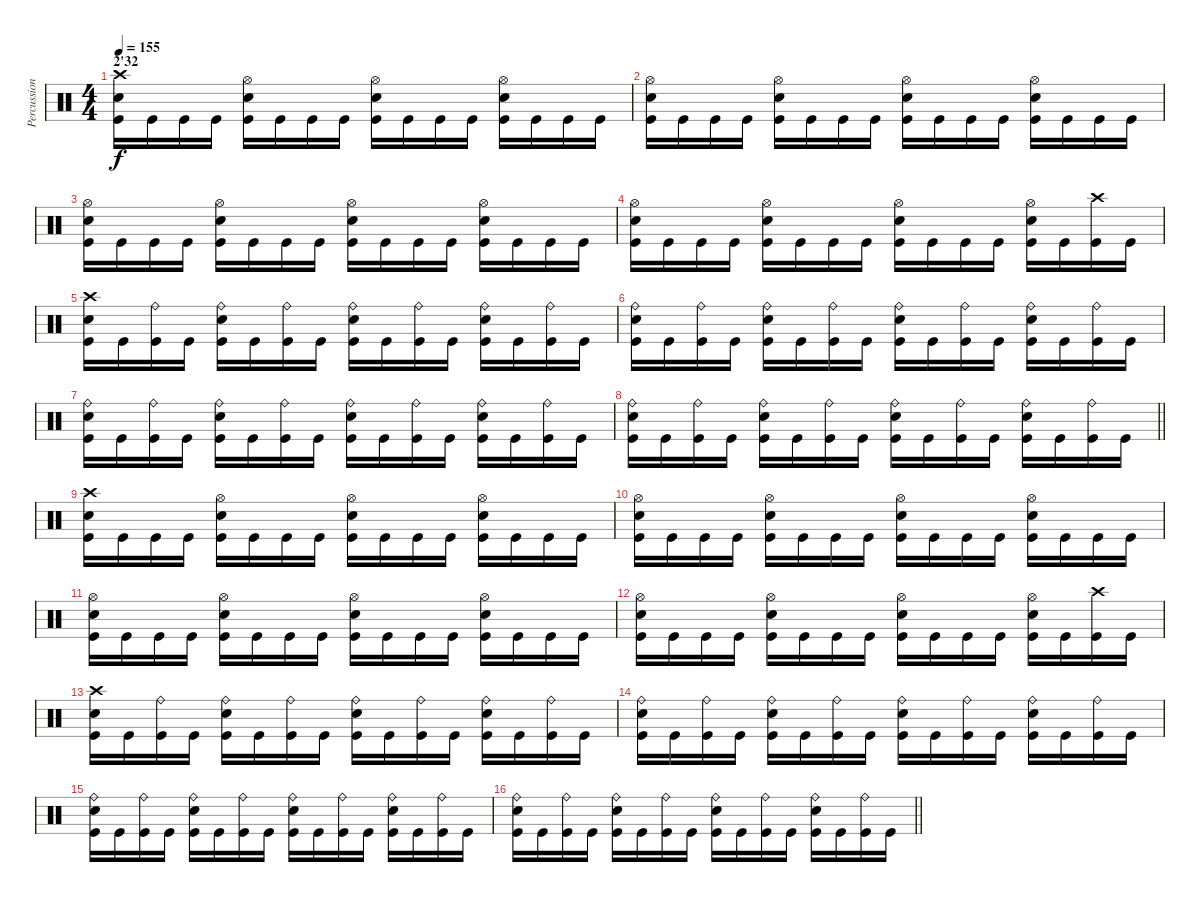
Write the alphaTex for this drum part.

\track ("Percussions" "Percussion") {instrument percussion}
\staff {score}
\articulation defaults
\ts (4 4)
\section ("" "2'32")
\tempo 155
\clef neutral
\ks c
("Crash high (hit)" "Electric Snare (hit)" "Kick (hit)").16{dy f} "Kick (hit)".16 "Kick (hit)".16 "Kick (hit)".16 ("Hi-Hat (open)" "Electric Snare (hit)" "Kick (hit)").16 "Kick (hit)".16 "Kick (hit)".16 "Kick (hit)".16 ("Hi-Hat (open)" "Electric Snare (hit)" "Kick (hit)").16 "Kick (hit)".16 "Kick (hit)".16 "Kick (hit)".16 ("Hi-Hat (open)" "Electric Snare (hit)" "Kick (hit)").16 "Kick (hit)".16 "Kick (hit)".16 "Kick (hit)".16 |
("Hi-Hat (open)" "Electric Snare (hit)" "Kick (hit)").16 "Kick (hit)".16 "Kick (hit)".16 "Kick (hit)".16 ("Hi-Hat (open)" "Electric Snare (hit)" "Kick (hit)").16 "Kick (hit)".16 "Kick (hit)".16 "Kick (hit)".16 ("Hi-Hat (open)" "Electric Snare (hit)" "Kick (hit)").16 "Kick (hit)".16 "Kick (hit)".16 "Kick (hit)".16 ("Hi-Hat (open)" "Electric Snare (hit)" "Kick (hit)").16 "Kick (hit)".16 "Kick (hit)".16 "Kick (hit)".16 |
("Hi-Hat (open)" "Electric Snare (hit)" "Kick (hit)").16 "Kick (hit)".16 "Kick (hit)".16 "Kick (hit)".16 ("Hi-Hat (open)" "Electric Snare (hit)" "Kick (hit)").16 "Kick (hit)".16 "Kick (hit)".16 "Kick (hit)".16 ("Hi-Hat (open)" "Electric Snare (hit)" "Kick (hit)").16 "Kick (hit)".16 "Kick (hit)".16 "Kick (hit)".16 ("Hi-Hat (open)" "Electric Snare (hit)" "Kick (hit)").16 "Kick (hit)".16 "Kick (hit)".16 "Kick (hit)".16 |
("Hi-Hat (open)" "Electric Snare (hit)" "Kick (hit)").16 "Kick (hit)".16 "Kick (hit)".16 "Kick (hit)".16 ("Hi-Hat (open)" "Electric Snare (hit)" "Kick (hit)").16 "Kick (hit)".16 "Kick (hit)".16 "Kick (hit)".16 ("Hi-Hat (open)" "Electric Snare (hit)" "Kick (hit)").16 "Kick (hit)".16 "Kick (hit)".16 "Kick (hit)".16 ("Hi-Hat (open)" "Electric Snare (hit)" "Kick (hit)").16 "Kick (hit)".16 ("Crash high (hit)" "Kick (hit)").16 "Kick (hit)".16 |
("Crash high (hit)" "Electric Snare (hit)" "Kick (hit)").16 "Kick (hit)".16 ("Ride (bell)" "Kick (hit)").16 "Kick (hit)".16 ("Ride (bell)" "Electric Snare (hit)" "Kick (hit)").16 "Kick (hit)".16 ("Ride (bell)" "Kick (hit)").16 "Kick (hit)".16 ("Ride (bell)" "Electric Snare (hit)" "Kick (hit)").16 "Kick (hit)".16 ("Ride (bell)" "Kick (hit)").16 "Kick (hit)".16 ("Ride (bell)" "Electric Snare (hit)" "Kick (hit)").16 "Kick (hit)".16 ("Ride (bell)" "Kick (hit)").16 "Kick (hit)".16 |
("Ride (bell)" "Electric Snare (hit)" "Kick (hit)").16 "Kick (hit)".16 ("Ride (bell)" "Kick (hit)").16 "Kick (hit)".16 ("Ride (bell)" "Electric Snare (hit)" "Kick (hit)").16 "Kick (hit)".16 ("Ride (bell)" "Kick (hit)").16 "Kick (hit)".16 ("Ride (bell)" "Electric Snare (hit)" "Kick (hit)").16 "Kick (hit)".16 ("Ride (bell)" "Kick (hit)").16 "Kick (hit)".16 ("Ride (bell)" "Electric Snare (hit)" "Kick (hit)").16 "Kick (hit)".16 ("Ride (bell)" "Kick (hit)").16 "Kick (hit)".16 |
("Ride (bell)" "Electric Snare (hit)" "Kick (hit)").16 "Kick (hit)".16 ("Ride (bell)" "Kick (hit)").16 "Kick (hit)".16 ("Ride (bell)" "Electric Snare (hit)" "Kick (hit)").16 "Kick (hit)".16 ("Ride (bell)" "Kick (hit)").16 "Kick (hit)".16 ("Ride (bell)" "Electric Snare (hit)" "Kick (hit)").16 "Kick (hit)".16 ("Ride (bell)" "Kick (hit)").16 "Kick (hit)".16 ("Ride (bell)" "Electric Snare (hit)" "Kick (hit)").16 "Kick (hit)".16 ("Ride (bell)" "Kick (hit)").16 "Kick (hit)".16 |
\barLineRight lightlight
("Ride (bell)" "Electric Snare (hit)" "Kick (hit)").16 "Kick (hit)".16 ("Ride (bell)" "Kick (hit)").16 "Kick (hit)".16 ("Ride (bell)" "Electric Snare (hit)" "Kick (hit)").16 "Kick (hit)".16 ("Ride (bell)" "Kick (hit)").16 "Kick (hit)".16 ("Ride (bell)" "Electric Snare (hit)" "Kick (hit)").16 "Kick (hit)".16 ("Ride (bell)" "Kick (hit)").16 "Kick (hit)".16 ("Ride (bell)" "Electric Snare (hit)" "Kick (hit)").16 "Kick (hit)".16 ("Ride (bell)" "Kick (hit)").16 "Kick (hit)".16 |
("Crash high (hit)" "Electric Snare (hit)" "Kick (hit)").16 "Kick (hit)".16 "Kick (hit)".16 "Kick (hit)".16 ("Hi-Hat (open)" "Electric Snare (hit)" "Kick (hit)").16 "Kick (hit)".16 "Kick (hit)".16 "Kick (hit)".16 ("Hi-Hat (open)" "Electric Snare (hit)" "Kick (hit)").16 "Kick (hit)".16 "Kick (hit)".16 "Kick (hit)".16 ("Hi-Hat (open)" "Electric Snare (hit)" "Kick (hit)").16 "Kick (hit)".16 "Kick (hit)".16 "Kick (hit)".16 |
("Hi-Hat (open)" "Electric Snare (hit)" "Kick (hit)").16 "Kick (hit)".16 "Kick (hit)".16 "Kick (hit)".16 ("Hi-Hat (open)" "Electric Snare (hit)" "Kick (hit)").16 "Kick (hit)".16 "Kick (hit)".16 "Kick (hit)".16 ("Hi-Hat (open)" "Electric Snare (hit)" "Kick (hit)").16 "Kick (hit)".16 "Kick (hit)".16 "Kick (hit)".16 ("Hi-Hat (open)" "Electric Snare (hit)" "Kick (hit)").16 "Kick (hit)".16 "Kick (hit)".16 "Kick (hit)".16 |
("Hi-Hat (open)" "Electric Snare (hit)" "Kick (hit)").16 "Kick (hit)".16 "Kick (hit)".16 "Kick (hit)".16 ("Hi-Hat (open)" "Electric Snare (hit)" "Kick (hit)").16 "Kick (hit)".16 "Kick (hit)".16 "Kick (hit)".16 ("Hi-Hat (open)" "Electric Snare (hit)" "Kick (hit)").16 "Kick (hit)".16 "Kick (hit)".16 "Kick (hit)".16 ("Hi-Hat (open)" "Electric Snare (hit)" "Kick (hit)").16 "Kick (hit)".16 "Kick (hit)".16 "Kick (hit)".16 |
("Hi-Hat (open)" "Electric Snare (hit)" "Kick (hit)").16 "Kick (hit)".16 "Kick (hit)".16 "Kick (hit)".16 ("Hi-Hat (open)" "Electric Snare (hit)" "Kick (hit)").16 "Kick (hit)".16 "Kick (hit)".16 "Kick (hit)".16 ("Hi-Hat (open)" "Electric Snare (hit)" "Kick (hit)").16 "Kick (hit)".16 "Kick (hit)".16 "Kick (hit)".16 ("Hi-Hat (open)" "Electric Snare (hit)" "Kick (hit)").16 "Kick (hit)".16 ("Crash high (hit)" "Kick (hit)").16 "Kick (hit)".16 |
("Crash high (hit)" "Electric Snare (hit)" "Kick (hit)").16 "Kick (hit)".16 ("Ride (bell)" "Kick (hit)").16 "Kick (hit)".16 ("Ride (bell)" "Electric Snare (hit)" "Kick (hit)").16 "Kick (hit)".16 ("Ride (bell)" "Kick (hit)").16 "Kick (hit)".16 ("Ride (bell)" "Electric Snare (hit)" "Kick (hit)").16 "Kick (hit)".16 ("Ride (bell)" "Kick (hit)").16 "Kick (hit)".16 ("Ride (bell)" "Electric Snare (hit)" "Kick (hit)").16 "Kick (hit)".16 ("Ride (bell)" "Kick (hit)").16 "Kick (hit)".16 |
("Ride (bell)" "Electric Snare (hit)" "Kick (hit)").16 "Kick (hit)".16 ("Ride (bell)" "Kick (hit)").16 "Kick (hit)".16 ("Ride (bell)" "Electric Snare (hit)" "Kick (hit)").16 "Kick (hit)".16 ("Ride (bell)" "Kick (hit)").16 "Kick (hit)".16 ("Ride (bell)" "Electric Snare (hit)" "Kick (hit)").16 "Kick (hit)".16 ("Ride (bell)" "Kick (hit)").16 "Kick (hit)".16 ("Ride (bell)" "Electric Snare (hit)" "Kick (hit)").16 "Kick (hit)".16 ("Ride (bell)" "Kick (hit)").16 "Kick (hit)".16 |
("Ride (bell)" "Electric Snare (hit)" "Kick (hit)").16 "Kick (hit)".16 ("Ride (bell)" "Kick (hit)").16 "Kick (hit)".16 ("Ride (bell)" "Electric Snare (hit)" "Kick (hit)").16 "Kick (hit)".16 ("Ride (bell)" "Kick (hit)").16 "Kick (hit)".16 ("Ride (bell)" "Electric Snare (hit)" "Kick (hit)").16 "Kick (hit)".16 ("Ride (bell)" "Kick (hit)").16 "Kick (hit)".16 ("Ride (bell)" "Electric Snare (hit)" "Kick (hit)").16 "Kick (hit)".16 ("Ride (bell)" "Kick (hit)").16 "Kick (hit)".16 |
\barLineRight lightlight
("Ride (bell)" "Electric Snare (hit)" "Kick (hit)").16 "Kick (hit)".16 ("Ride (bell)" "Kick (hit)").16 "Kick (hit)".16 ("Ride (bell)" "Electric Snare (hit)" "Kick (hit)").16 "Kick (hit)".16 ("Ride (bell)" "Kick (hit)").16 "Kick (hit)".16 ("Ride (bell)" "Electric Snare (hit)" "Kick (hit)").16 "Kick (hit)".16 ("Ride (bell)" "Kick (hit)").16 "Kick (hit)".16 ("Ride (bell)" "Electric Snare (hit)" "Kick (hit)").16 "Kick (hit)".16 ("Ride (bell)" "Kick (hit)").16 "Kick (hit)".16
